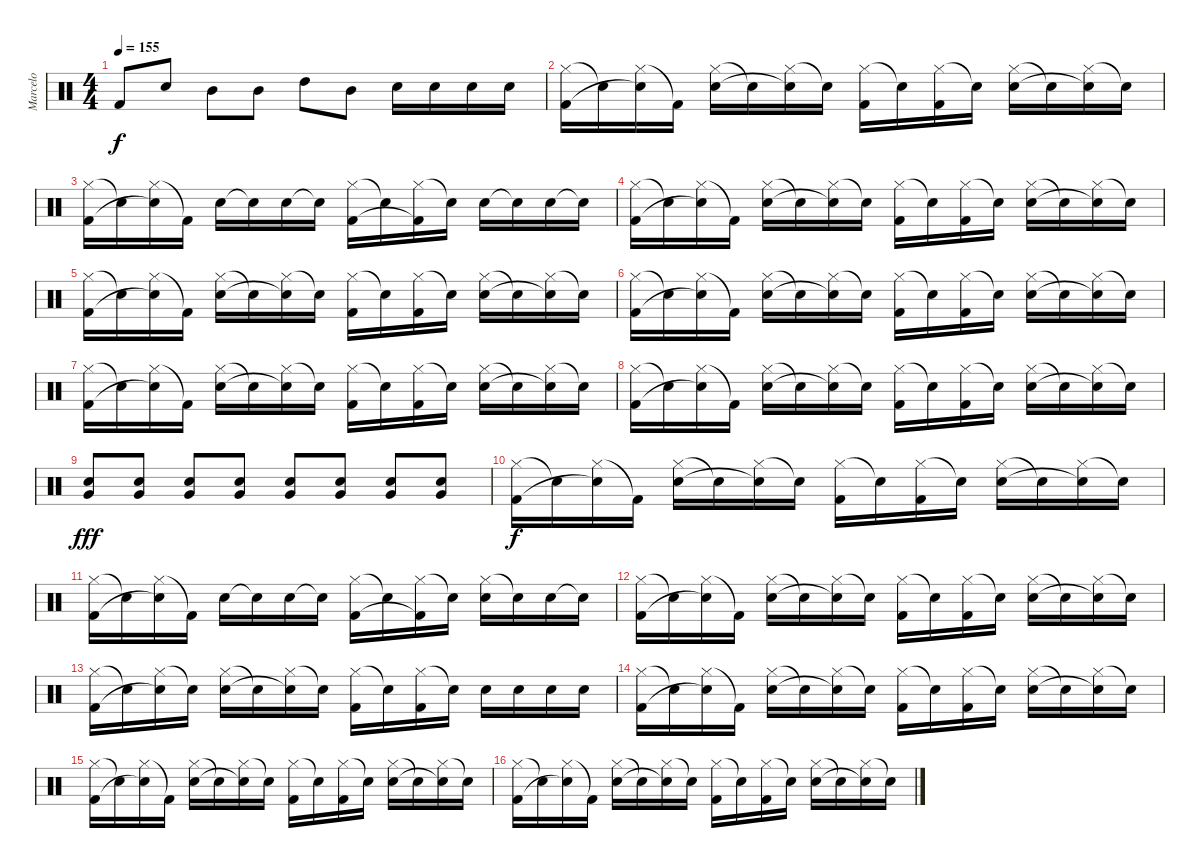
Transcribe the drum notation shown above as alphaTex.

\track ("Marcelo" "Marcelo") {instrument percussion}
\staff {score}
\articulation defaults
\ts (4 4)
\tempo 155
\clef neutral
\ks c "Kick (hit) 2".8{dy f} "Snare (hit) 2".8 "Mid Tom (hit)".8 "Mid Tom (hit)".8 "High Tom (hit)".8 "Mid Tom (hit)".8 "Snare (hit) 2".16 "Snare (hit) 2".16 "Snare (hit) 2".16 "Snare (hit) 2".16
|
("Hi-Hat (closed)" "Kick (hit) 2").16 "Snare (hit) 2"{t}.16 ("Hi-Hat (closed)" "Snare (hit) 2"{t}).16 "Kick (hit) 2"{t}.16 ("Hi-Hat (closed)" "Snare (hit) 2").16 "Snare (hit)"{t}.16 ("Hi-Hat (closed)" "Snare (hit)"{t}).16 "Snare (hit)"{t}.16 ("Hi-Hat (closed)" "Kick (hit) 2").16 "Snare (hit)"{t}.16 ("Hi-Hat (closed)" "Kick (hit) 2").16 "Snare (hit)"{t}.16 ("Hi-Hat (closed)" "Snare (hit) 2").16 "Snare (hit)"{t}.16 ("Hi-Hat (closed)" "Snare (hit)"{t}).16 "Snare (hit)"{t}.16 |
("Hi-Hat (closed)" "Kick (hit) 2").16 "Snare (hit) 2"{t}.16 ("Hi-Hat (closed)" "Snare (hit) 2"{t}).16 "Kick (hit) 2"{t}.16 "Snare (hit) 2".16 "Snare (hit)"{t}.16 "Snare (hit) 2".16 "Snare (hit)"{t}.16 ("Hi-Hat (closed)" "Kick (hit) 2").16 "Snare (hit)"{t}.16 ("Hi-Hat (closed)" "Kick (hit) 2"{t}).16 "Snare (hit)"{t}.16 "Snare (hit) 2".16 "Snare (hit)"{t}.16 "Snare (hit) 2".16 "Snare (hit)"{t}.16 |
("Hi-Hat (closed)" "Kick (hit) 2").16 "Snare (hit) 2"{t}.16 ("Hi-Hat (closed)" "Snare (hit) 2"{t}).16 "Kick (hit) 2"{t}.16 ("Hi-Hat (closed)" "Snare (hit) 2").16 "Snare (hit)"{t}.16 ("Hi-Hat (closed)" "Snare (hit)"{t}).16 "Snare (hit)"{t}.16 ("Hi-Hat (closed)" "Kick (hit) 2").16 "Snare (hit)"{t}.16 ("Hi-Hat (closed)" "Kick (hit) 2").16 "Snare (hit)"{t}.16 ("Hi-Hat (closed)" "Snare (hit) 2").16 "Snare (hit)"{t}.16 ("Hi-Hat (closed)" "Snare (hit)"{t}).16 "Snare (hit)"{t}.16 |
("Hi-Hat (closed)" "Kick (hit) 2").16 "Snare (hit) 2"{t}.16 ("Hi-Hat (closed)" "Snare (hit) 2"{t}).16 "Kick (hit) 2"{t}.16 ("Hi-Hat (closed)" "Snare (hit) 2").16 "Snare (hit)"{t}.16 ("Hi-Hat (closed)" "Snare (hit)"{t}).16 "Snare (hit)"{t}.16 ("Hi-Hat (closed)" "Kick (hit) 2").16 "Snare (hit)"{t}.16 ("Hi-Hat (closed)" "Kick (hit) 2").16 "Snare (hit)"{t}.16 ("Hi-Hat (closed)" "Snare (hit) 2").16 "Snare (hit)"{t}.16 ("Hi-Hat (closed)" "Snare (hit)"{t}).16 "Snare (hit)"{t}.16 |
("Hi-Hat (closed)" "Kick (hit) 2").16 "Snare (hit) 2"{t}.16 ("Hi-Hat (closed)" "Snare (hit) 2"{t}).16 "Kick (hit) 2"{t}.16 ("Hi-Hat (closed)" "Snare (hit) 2").16 "Snare (hit)"{t}.16 ("Hi-Hat (closed)" "Snare (hit)"{t}).16 "Snare (hit)"{t}.16 ("Hi-Hat (closed)" "Kick (hit) 2").16 "Snare (hit)"{t}.16 ("Hi-Hat (closed)" "Kick (hit) 2").16 "Snare (hit)"{t}.16 ("Hi-Hat (closed)" "Snare (hit) 2").16 "Snare (hit)"{t}.16 ("Hi-Hat (closed)" "Snare (hit)"{t}).16 "Snare (hit)"{t}.16 |
("Hi-Hat (closed)" "Kick (hit) 2").16 "Snare (hit) 2"{t}.16 ("Hi-Hat (closed)" "Snare (hit) 2"{t}).16 "Kick (hit) 2"{t}.16 ("Hi-Hat (closed)" "Snare (hit) 2").16 "Snare (hit)"{t}.16 ("Hi-Hat (closed)" "Snare (hit)"{t}).16 "Snare (hit)"{t}.16 ("Hi-Hat (closed)" "Kick (hit) 2").16 "Snare (hit)"{t}.16 ("Hi-Hat (closed)" "Kick (hit) 2").16 "Snare (hit)"{t}.16 ("Hi-Hat (closed)" "Snare (hit) 2").16 "Snare (hit)"{t}.16 ("Hi-Hat (closed)" "Snare (hit)"{t}).16 "Snare (hit)"{t}.16 |
("Hi-Hat (closed)" "Kick (hit) 2").16 "Snare (hit) 2"{t}.16 ("Hi-Hat (closed)" "Snare (hit) 2"{t}).16 "Kick (hit) 2"{t}.16 ("Hi-Hat (closed)" "Snare (hit) 2").16 "Snare (hit)"{t}.16 ("Hi-Hat (closed)" "Snare (hit)"{t}).16 "Snare (hit)"{t}.16 ("Hi-Hat (closed)" "Kick (hit) 2").16 "Snare (hit)"{t}.16 ("Hi-Hat (closed)" "Kick (hit) 2").16 "Snare (hit)"{t}.16 ("Hi-Hat (closed)" "Snare (hit) 2").16 "Snare (hit)"{t}.16 ("Hi-Hat (closed)" "Snare (hit)"{t}).16 "Snare (hit)"{t}.16 |
("Snare (hit) 2" "Very Low Tom (hit)").8{dy fff} ("Snare (hit) 2" "Very Low Tom (hit)").8 ("Snare (hit) 2" "Very Low Tom (hit)").8 ("Snare (hit) 2" "Very Low Tom (hit)").8 ("Snare (hit) 2" "Very Low Tom (hit)").8 ("Snare (hit) 2" "Very Low Tom (hit)").8 ("Snare (hit) 2" "Very Low Tom (hit)").8 ("Snare (hit) 2" "Very Low Tom (hit)").8 |
("Hi-Hat (closed)" "Kick (hit) 2").16{dy f} "Snare (hit) 2"{t}.16 ("Hi-Hat (closed)" "Snare (hit) 2"{t}).16 "Kick (hit) 2"{t}.16 ("Hi-Hat (closed)" "Snare (hit) 2").16 "Snare (hit)"{t}.16 ("Hi-Hat (closed)" "Snare (hit)"{t}).16 "Snare (hit)"{t}.16 ("Hi-Hat (closed)" "Kick (hit) 2").16 "Snare (hit)"{t}.16 ("Hi-Hat (closed)" "Kick (hit) 2").16 "Snare (hit)"{t}.16 ("Hi-Hat (closed)" "Snare (hit) 2").16 "Snare (hit)"{t}.16 ("Hi-Hat (closed)" "Snare (hit)"{t}).16 "Snare (hit)"{t}.16 |
("Hi-Hat (closed)" "Kick (hit) 2").16 "Snare (hit) 2"{t}.16 ("Hi-Hat (closed)" "Snare (hit) 2"{t}).16 "Kick (hit) 2"{t}.16 "Snare (hit) 2".16 "Snare (hit)"{t}.16 "Snare (hit) 2".16 "Snare (hit)"{t}.16 ("Hi-Hat (closed)" "Kick (hit) 2").16 "Snare (hit)"{t}.16 ("Hi-Hat (closed)" "Kick (hit) 2"{t}).16 "Snare (hit)"{t}.16 ("Hi-Hat (closed)" "Snare (hit) 2").16 "Snare (hit)"{t}.16 "Snare (hit) 2".16 "Snare (hit)"{t}.16 |
("Hi-Hat (closed)" "Kick (hit) 2").16 "Snare (hit) 2"{t}.16 ("Hi-Hat (closed)" "Snare (hit) 2"{t}).16 "Kick (hit) 2"{t}.16 ("Hi-Hat (closed)" "Snare (hit) 2").16 "Snare (hit)"{t}.16 ("Hi-Hat (closed)" "Snare (hit)"{t}).16 "Snare (hit)"{t}.16 ("Hi-Hat (closed)" "Kick (hit) 2").16 "Snare (hit)"{t}.16 ("Hi-Hat (closed)" "Kick (hit) 2").16 "Snare (hit)"{t}.16 ("Hi-Hat (closed)" "Snare (hit) 2").16 "Snare (hit)"{t}.16 ("Hi-Hat (closed)" "Snare (hit)"{t}).16 "Snare (hit)"{t}.16 |
("Hi-Hat (closed)" "Kick (hit) 2").16 "Snare (hit)"{t}.16 ("Hi-Hat (closed)" "Snare (hit)"{t}).16 "Snare (hit)"{t}.16 ("Hi-Hat (closed)" "Snare (hit) 2").16 "Snare (hit)"{t}.16 ("Hi-Hat (closed)" "Snare (hit)"{t}).16 "Snare (hit)"{t}.16 ("Hi-Hat (closed)" "Kick (hit) 2").16 "Snare (hit)"{t}.16 ("Hi-Hat (closed)" "Kick (hit) 2").16 "Snare (hit)"{t}.16 "Snare (hit) 2".16 "Snare (hit) 2".16 "Snare (hit) 2".16 "Snare (hit) 2".16 |
("Hi-Hat (closed)" "Kick (hit) 2").16 "Snare (hit) 2"{t}.16 ("Hi-Hat (closed)" "Snare (hit) 2"{t}).16 "Kick (hit) 2"{t}.16 ("Hi-Hat (closed)" "Snare (hit) 2").16 "Snare (hit)"{t}.16 ("Hi-Hat (closed)" "Snare (hit)"{t}).16 "Snare (hit)"{t}.16 ("Hi-Hat (closed)" "Kick (hit) 2").16 "Snare (hit)"{t}.16 ("Hi-Hat (closed)" "Kick (hit) 2").16 "Snare (hit)"{t}.16 ("Hi-Hat (closed)" "Snare (hit) 2").16 "Snare (hit)"{t}.16 ("Hi-Hat (closed)" "Snare (hit)"{t}).16 "Snare (hit)"{t}.16 |
("Hi-Hat (closed)" "Kick (hit) 2").16 "Snare (hit) 2"{t}.16 ("Hi-Hat (closed)" "Snare (hit) 2"{t}).16 "Kick (hit) 2"{t}.16 ("Hi-Hat (closed)" "Snare (hit) 2").16 "Snare (hit)"{t}.16 ("Hi-Hat (closed)" "Snare (hit)"{t}).16 "Snare (hit)"{t}.16 ("Hi-Hat (closed)" "Kick (hit) 2").16 "Snare (hit)"{t}.16 ("Hi-Hat (closed)" "Kick (hit) 2").16 "Snare (hit)"{t}.16 ("Hi-Hat (closed)" "Snare (hit) 2").16 "Snare (hit)"{t}.16 ("Hi-Hat (closed)" "Snare (hit)"{t}).16 "Snare (hit)"{t}.16 |
("Hi-Hat (closed)" "Kick (hit) 2").16 "Snare (hit) 2"{t}.16 ("Hi-Hat (closed)" "Snare (hit) 2"{t}).16 "Kick (hit) 2"{t}.16 ("Hi-Hat (closed)" "Snare (hit) 2").16 "Snare (hit)"{t}.16 ("Hi-Hat (closed)" "Snare (hit)"{t}).16 "Snare (hit)"{t}.16 ("Hi-Hat (closed)" "Kick (hit) 2").16 "Snare (hit)"{t}.16 ("Hi-Hat (closed)" "Kick (hit) 2").16 "Snare (hit)"{t}.16 ("Hi-Hat (closed)" "Snare (hit) 2").16 "Snare (hit)"{t}.16 ("Hi-Hat (closed)" "Snare (hit)"{t}).16 "Snare (hit)"{t}.16
